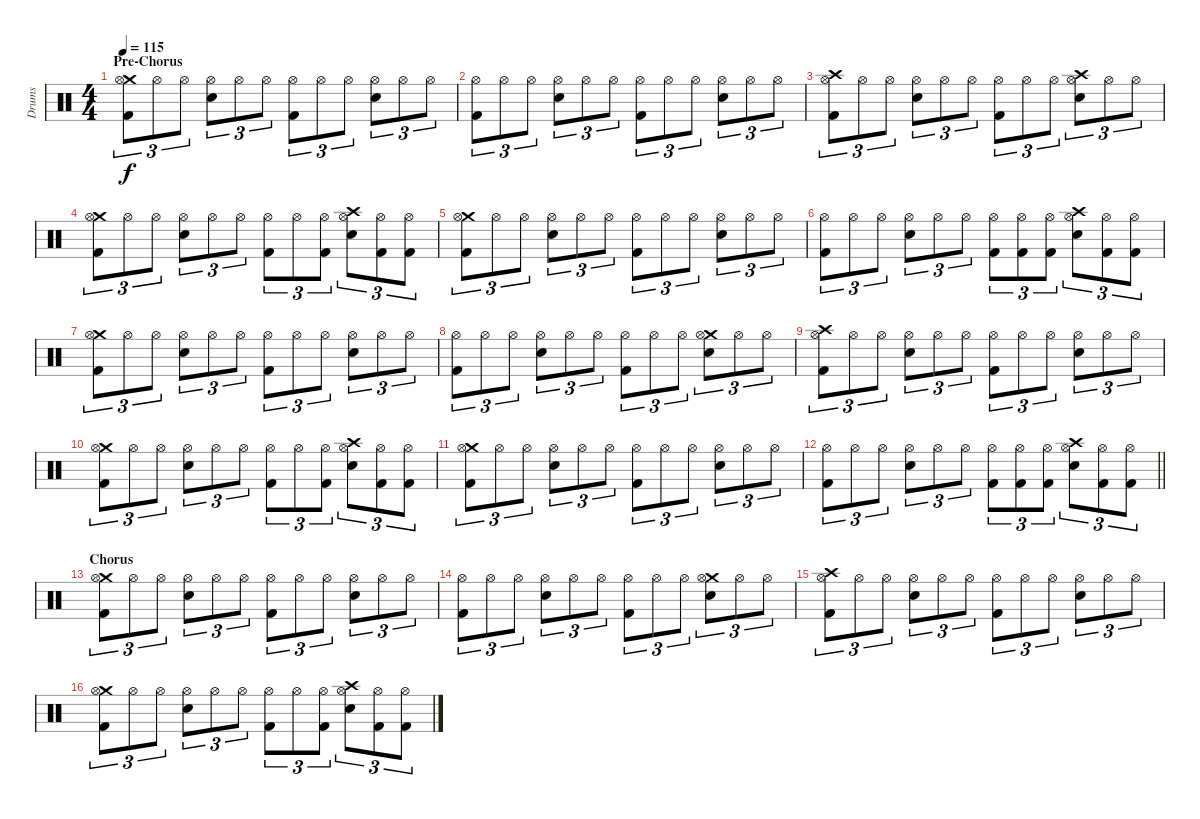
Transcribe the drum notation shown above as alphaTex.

\track ("Drums" "Drums") {instrument percussion}
\staff {score}
\articulation defaults
\ts (4 4)
\section ("" "Pre-Chorus")
\tempo 115
\clef neutral
\ks c
("Crash medium (hit)" "Hi-Hat (open)" "Kick (hit) 2").8{tu (3 2) dy f} "Hi-Hat (open)".8{tu (3 2)} "Hi-Hat (open)".8{tu (3 2)} ("Hi-Hat (open)" "Snare (hit) 2").8{tu (3 2)} "Hi-Hat (open)".8{tu (3 2)} "Hi-Hat (open)".8{tu (3 2)} ("Hi-Hat (open)" "Kick (hit) 2").8{tu (3 2)} "Hi-Hat (open)".8{tu (3 2)} "Hi-Hat (open)".8{tu (3 2)} ("Hi-Hat (open)" "Snare (hit) 2").8{tu (3 2)} "Hi-Hat (open)".8{tu (3 2)} "Hi-Hat (open)".8{tu (3 2)} |
("Hi-Hat (open)" "Kick (hit) 2").8{tu (3 2)} "Hi-Hat (open)".8{tu (3 2)} "Hi-Hat (open)".8{tu (3 2)} ("Hi-Hat (open)" "Snare (hit) 2").8{tu (3 2)} "Hi-Hat (open)".8{tu (3 2)} "Hi-Hat (open)".8{tu (3 2)} ("Hi-Hat (open)" "Kick (hit) 2").8{tu (3 2)} "Hi-Hat (open)".8{tu (3 2)} "Hi-Hat (open)".8{tu (3 2)} ("Hi-Hat (open)" "Snare (hit) 2").8{tu (3 2)} "Hi-Hat (open)".8{tu (3 2)} "Hi-Hat (open)".8{tu (3 2)} |
("Crash high (hit)" "Hi-Hat (open)" "Kick (hit) 2").8{tu (3 2)} "Hi-Hat (open)".8{tu (3 2)} "Hi-Hat (open)".8{tu (3 2)} ("Hi-Hat (open)" "Snare (hit) 2").8{tu (3 2)} "Hi-Hat (open)".8{tu (3 2)} "Hi-Hat (open)".8{tu (3 2)} ("Hi-Hat (open)" "Kick (hit) 2").8{tu (3 2)} "Hi-Hat (open)".8{tu (3 2)} "Hi-Hat (open)".8{tu (3 2)} ("Crash high (hit)" "Hi-Hat (open)" "Snare (hit) 2").8{tu (3 2)} "Hi-Hat (open)".8{tu (3 2)} "Hi-Hat (open)".8{tu (3 2)} |
("Crash medium (hit)" "Hi-Hat (open)" "Kick (hit) 2").8{tu (3 2)} "Hi-Hat (open)".8{tu (3 2)} "Hi-Hat (open)".8{tu (3 2)} ("Hi-Hat (open)" "Snare (hit) 2").8{tu (3 2)} "Hi-Hat (open)".8{tu (3 2)} "Hi-Hat (open)".8{tu (3 2)} ("Hi-Hat (open)" "Kick (hit) 2").8{tu (3 2)} "Hi-Hat (open)".8{tu (3 2)} ("Hi-Hat (open)" "Kick (hit) 2").8{tu (3 2)} ("Crash high (hit)" "Hi-Hat (open)" "Snare (hit) 2").8{tu (3 2)} ("Hi-Hat (open)" "Kick (hit) 2").8{tu (3 2)} ("Hi-Hat (open)" "Kick (hit) 2").8{tu (3 2)} |
("Crash medium (hit)" "Hi-Hat (open)" "Kick (hit) 2").8{tu (3 2)} "Hi-Hat (open)".8{tu (3 2)} "Hi-Hat (open)".8{tu (3 2)} ("Hi-Hat (open)" "Snare (hit) 2").8{tu (3 2)} "Hi-Hat (open)".8{tu (3 2)} "Hi-Hat (open)".8{tu (3 2)} ("Hi-Hat (open)" "Kick (hit) 2").8{tu (3 2)} "Hi-Hat (open)".8{tu (3 2)} "Hi-Hat (open)".8{tu (3 2)} ("Hi-Hat (open)" "Snare (hit) 2").8{tu (3 2)} "Hi-Hat (open)".8{tu (3 2)} "Hi-Hat (open)".8{tu (3 2)} |
("Hi-Hat (open)" "Kick (hit) 2").8{tu (3 2)} "Hi-Hat (open)".8{tu (3 2)} "Hi-Hat (open)".8{tu (3 2)} ("Hi-Hat (open)" "Snare (hit) 2").8{tu (3 2)} "Hi-Hat (open)".8{tu (3 2)} "Hi-Hat (open)".8{tu (3 2)} ("Hi-Hat (open)" "Kick (hit) 2").8{tu (3 2)} ("Hi-Hat (open)" "Kick (hit) 2").8{tu (3 2)} ("Hi-Hat (open)" "Kick (hit) 2").8{tu (3 2)} ("Crash high (hit)" "Hi-Hat (open)" "Snare (hit) 2").8{tu (3 2)} ("Hi-Hat (open)" "Kick (hit) 2").8{tu (3 2)} ("Hi-Hat (open)" "Kick (hit) 2").8{tu (3 2)} |
("Crash medium (hit)" "Hi-Hat (open)" "Kick (hit) 2").8{tu (3 2)} "Hi-Hat (open)".8{tu (3 2)} "Hi-Hat (open)".8{tu (3 2)} ("Hi-Hat (open)" "Snare (hit) 2").8{tu (3 2)} "Hi-Hat (open)".8{tu (3 2)} "Hi-Hat (open)".8{tu (3 2)} ("Hi-Hat (open)" "Kick (hit) 2").8{tu (3 2)} "Hi-Hat (open)".8{tu (3 2)} "Hi-Hat (open)".8{tu (3 2)} ("Hi-Hat (open)" "Snare (hit) 2").8{tu (3 2)} "Hi-Hat (open)".8{tu (3 2)} "Hi-Hat (open)".8{tu (3 2)} |
("Hi-Hat (open)" "Kick (hit) 2").8{tu (3 2)} "Hi-Hat (open)".8{tu (3 2)} "Hi-Hat (open)".8{tu (3 2)} ("Hi-Hat (open)" "Snare (hit) 2").8{tu (3 2)} "Hi-Hat (open)".8{tu (3 2)} "Hi-Hat (open)".8{tu (3 2)} ("Hi-Hat (open)" "Kick (hit) 2").8{tu (3 2)} "Hi-Hat (open)".8{tu (3 2)} "Hi-Hat (open)".8{tu (3 2)} ("Crash medium (hit)" "Hi-Hat (open)" "Snare (hit) 2").8{tu (3 2)} "Hi-Hat (open)".8{tu (3 2)} "Hi-Hat (open)".8{tu (3 2)} |
("Crash high (hit)" "Hi-Hat (open)" "Kick (hit) 2").8{tu (3 2)} "Hi-Hat (open)".8{tu (3 2)} "Hi-Hat (open)".8{tu (3 2)} ("Hi-Hat (open)" "Snare (hit) 2").8{tu (3 2)} "Hi-Hat (open)".8{tu (3 2)} "Hi-Hat (open)".8{tu (3 2)} ("Hi-Hat (open)" "Kick (hit) 2").8{tu (3 2)} "Hi-Hat (open)".8{tu (3 2)} "Hi-Hat (open)".8{tu (3 2)} ("Hi-Hat (open)" "Snare (hit) 2").8{tu (3 2)} "Hi-Hat (open)".8{tu (3 2)} "Hi-Hat (open)".8{tu (3 2)} |
("Crash medium (hit)" "Hi-Hat (open)" "Kick (hit) 2").8{tu (3 2)} "Hi-Hat (open)".8{tu (3 2)} "Hi-Hat (open)".8{tu (3 2)} ("Hi-Hat (open)" "Snare (hit) 2").8{tu (3 2)} "Hi-Hat (open)".8{tu (3 2)} "Hi-Hat (open)".8{tu (3 2)} ("Hi-Hat (open)" "Kick (hit) 2").8{tu (3 2)} "Hi-Hat (open)".8{tu (3 2)} ("Hi-Hat (open)" "Kick (hit) 2").8{tu (3 2)} ("Crash high (hit)" "Hi-Hat (open)" "Snare (hit) 2").8{tu (3 2)} ("Hi-Hat (open)" "Kick (hit) 2").8{tu (3 2)} ("Hi-Hat (open)" "Kick (hit) 2").8{tu (3 2)} |
("Crash medium (hit)" "Hi-Hat (open)" "Kick (hit) 2").8{tu (3 2)} "Hi-Hat (open)".8{tu (3 2)} "Hi-Hat (open)".8{tu (3 2)} ("Hi-Hat (open)" "Snare (hit) 2").8{tu (3 2)} "Hi-Hat (open)".8{tu (3 2)} "Hi-Hat (open)".8{tu (3 2)} ("Hi-Hat (open)" "Kick (hit) 2").8{tu (3 2)} "Hi-Hat (open)".8{tu (3 2)} "Hi-Hat (open)".8{tu (3 2)} ("Hi-Hat (open)" "Snare (hit) 2").8{tu (3 2)} "Hi-Hat (open)".8{tu (3 2)} "Hi-Hat (open)".8{tu (3 2)} |
\barLineRight lightlight
("Hi-Hat (open)" "Kick (hit) 2").8{tu (3 2)} "Hi-Hat (open)".8{tu (3 2)} "Hi-Hat (open)".8{tu (3 2)} ("Hi-Hat (open)" "Snare (hit) 2").8{tu (3 2)} "Hi-Hat (open)".8{tu (3 2)} "Hi-Hat (open)".8{tu (3 2)} ("Hi-Hat (open)" "Kick (hit) 2").8{tu (3 2)} ("Hi-Hat (open)" "Kick (hit) 2").8{tu (3 2)} ("Hi-Hat (open)" "Kick (hit) 2").8{tu (3 2)} ("Crash high (hit)" "Hi-Hat (open)" "Snare (hit) 2").8{tu (3 2)} ("Hi-Hat (open)" "Kick (hit) 2").8{tu (3 2)} ("Hi-Hat (open)" "Kick (hit) 2").8{tu (3 2)} |
\section ("" "Chorus")
("Crash medium (hit)" "Hi-Hat (open)" "Kick (hit) 2").8{tu (3 2)} "Hi-Hat (open)".8{tu (3 2)} "Hi-Hat (open)".8{tu (3 2)} ("Hi-Hat (open)" "Snare (hit) 2").8{tu (3 2)} "Hi-Hat (open)".8{tu (3 2)} "Hi-Hat (open)".8{tu (3 2)} ("Hi-Hat (open)" "Kick (hit) 2").8{tu (3 2)} "Hi-Hat (open)".8{tu (3 2)} "Hi-Hat (open)".8{tu (3 2)} ("Hi-Hat (open)" "Snare (hit) 2").8{tu (3 2)} "Hi-Hat (open)".8{tu (3 2)} "Hi-Hat (open)".8{tu (3 2)} |
("Hi-Hat (open)" "Kick (hit) 2").8{tu (3 2)} "Hi-Hat (open)".8{tu (3 2)} "Hi-Hat (open)".8{tu (3 2)} ("Hi-Hat (open)" "Snare (hit) 2").8{tu (3 2)} "Hi-Hat (open)".8{tu (3 2)} "Hi-Hat (open)".8{tu (3 2)} ("Hi-Hat (open)" "Kick (hit) 2").8{tu (3 2)} "Hi-Hat (open)".8{tu (3 2)} "Hi-Hat (open)".8{tu (3 2)} ("Crash medium (hit)" "Hi-Hat (open)" "Snare (hit) 2").8{tu (3 2)} "Hi-Hat (open)".8{tu (3 2)} "Hi-Hat (open)".8{tu (3 2)} |
("Crash high (hit)" "Hi-Hat (open)" "Kick (hit) 2").8{tu (3 2)} "Hi-Hat (open)".8{tu (3 2)} "Hi-Hat (open)".8{tu (3 2)} ("Hi-Hat (open)" "Snare (hit) 2").8{tu (3 2)} "Hi-Hat (open)".8{tu (3 2)} "Hi-Hat (open)".8{tu (3 2)} ("Hi-Hat (open)" "Kick (hit) 2").8{tu (3 2)} "Hi-Hat (open)".8{tu (3 2)} "Hi-Hat (open)".8{tu (3 2)} ("Hi-Hat (open)" "Snare (hit) 2").8{tu (3 2)} "Hi-Hat (open)".8{tu (3 2)} "Hi-Hat (open)".8{tu (3 2)} |
("Crash medium (hit)" "Hi-Hat (open)" "Kick (hit) 2").8{tu (3 2)} "Hi-Hat (open)".8{tu (3 2)} "Hi-Hat (open)".8{tu (3 2)} ("Hi-Hat (open)" "Snare (hit) 2").8{tu (3 2)} "Hi-Hat (open)".8{tu (3 2)} "Hi-Hat (open)".8{tu (3 2)} ("Hi-Hat (open)" "Kick (hit) 2").8{tu (3 2)} "Hi-Hat (open)".8{tu (3 2)} ("Hi-Hat (open)" "Kick (hit) 2").8{tu (3 2)} ("Crash high (hit)" "Hi-Hat (open)" "Snare (hit) 2").8{tu (3 2)} ("Hi-Hat (open)" "Kick (hit) 2").8{tu (3 2)} ("Hi-Hat (open)" "Kick (hit) 2").8{tu (3 2)}
